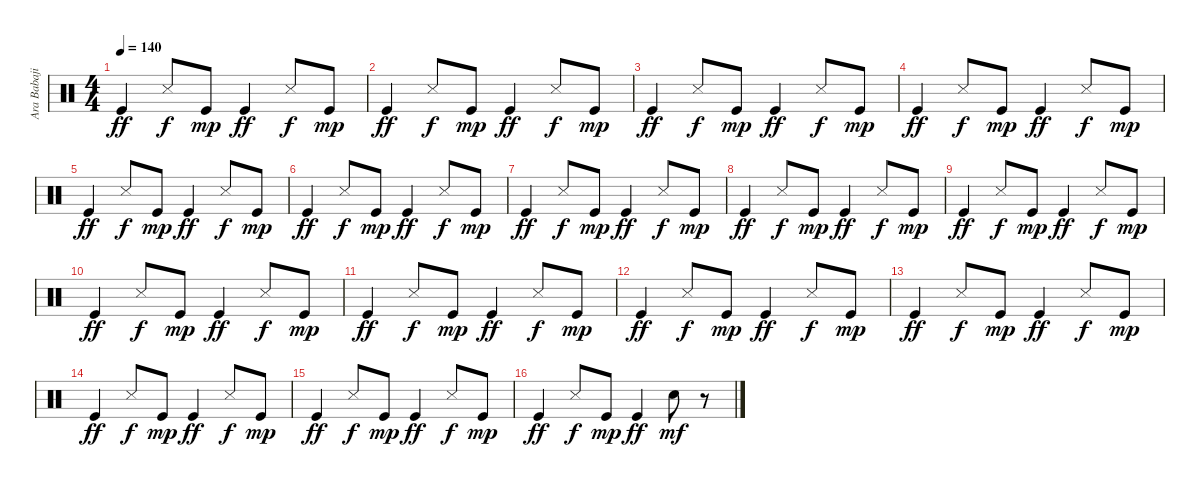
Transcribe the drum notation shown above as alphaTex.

\track ("Ara Babajian Drums" "Ara Babaji") {instrument percussion}
\staff {score}
\articulation defaults
\ts (4 4)
\tempo 140
\clef neutral
\ks c "Kick (hit)".4{dy ff} "Snare (side stick) 3".8{dy f} "Kick (hit)".8{dy mp} "Kick (hit)".4{dy ff} "Snare (side stick) 3".8{dy f} "Kick (hit)".8{dy mp}
|
"Kick (hit)".4{dy ff} "Snare (side stick) 3".8{dy f} "Kick (hit)".8{dy mp} "Kick (hit)".4{dy ff} "Snare (side stick) 3".8{dy f} "Kick (hit)".8{dy mp} |
"Kick (hit)".4{dy ff} "Snare (side stick) 3".8{dy f} "Kick (hit)".8{dy mp} "Kick (hit)".4{dy ff} "Snare (side stick) 3".8{dy f} "Kick (hit)".8{dy mp} |
"Kick (hit)".4{dy ff} "Snare (side stick) 3".8{dy f} "Kick (hit)".8{dy mp} "Kick (hit)".4{dy ff} "Snare (side stick) 3".8{dy f} "Kick (hit)".8{dy mp} |
"Kick (hit)".4{dy ff} "Snare (side stick) 3".8{dy f} "Kick (hit)".8{dy mp} "Kick (hit)".4{dy ff} "Snare (side stick) 3".8{dy f} "Kick (hit)".8{dy mp} |
"Kick (hit)".4{dy ff} "Snare (side stick) 3".8{dy f} "Kick (hit)".8{dy mp} "Kick (hit)".4{dy ff} "Snare (side stick) 3".8{dy f} "Kick (hit)".8{dy mp} |
"Kick (hit)".4{dy ff} "Snare (side stick) 3".8{dy f} "Kick (hit)".8{dy mp} "Kick (hit)".4{dy ff} "Snare (side stick) 3".8{dy f} "Kick (hit)".8{dy mp} |
"Kick (hit)".4{dy ff} "Snare (side stick) 3".8{dy f} "Kick (hit)".8{dy mp} "Kick (hit)".4{dy ff} "Snare (side stick) 3".8{dy f} "Kick (hit)".8{dy mp} |
"Kick (hit)".4{dy ff} "Snare (side stick) 3".8{dy f} "Kick (hit)".8{dy mp} "Kick (hit)".4{dy ff} "Snare (side stick) 3".8{dy f} "Kick (hit)".8{dy mp} |
"Kick (hit)".4{dy ff} "Snare (side stick) 3".8{dy f} "Kick (hit)".8{dy mp} "Kick (hit)".4{dy ff} "Snare (side stick) 3".8{dy f} "Kick (hit)".8{dy mp} |
"Kick (hit)".4{dy ff} "Snare (side stick) 3".8{dy f} "Kick (hit)".8{dy mp} "Kick (hit)".4{dy ff} "Snare (side stick) 3".8{dy f} "Kick (hit)".8{dy mp} |
"Kick (hit)".4{dy ff} "Snare (side stick) 3".8{dy f} "Kick (hit)".8{dy mp} "Kick (hit)".4{dy ff} "Snare (side stick) 3".8{dy f} "Kick (hit)".8{dy mp} |
"Kick (hit)".4{dy ff} "Snare (side stick) 3".8{dy f} "Kick (hit)".8{dy mp} "Kick (hit)".4{dy ff} "Snare (side stick) 3".8{dy f} "Kick (hit)".8{dy mp} |
"Kick (hit)".4{dy ff} "Snare (side stick) 3".8{dy f} "Kick (hit)".8{dy mp} "Kick (hit)".4{dy ff} "Snare (side stick) 3".8{dy f} "Kick (hit)".8{dy mp} |
"Kick (hit)".4{dy ff} "Snare (side stick) 3".8{dy f} "Kick (hit)".8{dy mp} "Kick (hit)".4{dy ff} "Snare (side stick) 3".8{dy f} "Kick (hit)".8{dy mp} |
"Kick (hit)".4{dy ff} "Snare (side stick) 3".8{dy f} "Kick (hit)".8{dy mp} "Kick (hit)".4{dy ff} "Snare (hit) 2".8{dy mf} r.8
